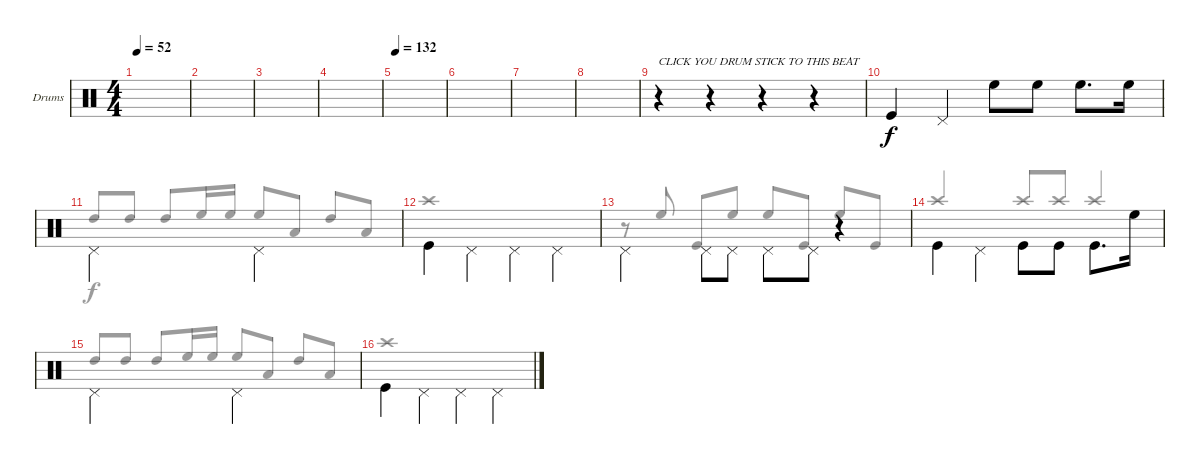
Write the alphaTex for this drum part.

\defaultSystemsLayout 4
\bracketExtendMode groupsimilarinstruments
\firstSystemTrackNameOrientation horizontal
\otherSystemsTrackNameOrientation horizontal
\track ("PETER CRISS" "Drums") {solo instrument percussion}
\staff {score}
\articulation defaults
\voice
\ts (4 4)
\tempo 52
\clef neutral
\scale
0.472222
\ks aminor
|
\scale
0.263889 |
\scale
0.263889 |
\scale
0.333333 |
\tempo 132
\scale
0.333333 |
\scale
0.333333 |
\scale
0.333333 |
\scale
0.333333 |
\scale
0.333333 r.4{txt "CLICK YOU DRUM STICK TO THIS BEAT"} r.4 r.4 r.4 |
"Kick (hit)".4 "Pedal Hi-Hat (hit)".4 "High Floor Tom (hit)".8 "High Floor Tom (hit)".8 "High Floor Tom (hit)".8{d} "High Floor Tom (hit)".16 |
"Pedal Hi-Hat (hit)".2{beam invert} "Pedal Hi-Hat (hit)".2{beam invert} |
"Kick (hit)".4{beam invert} "Pedal Hi-Hat (hit)".4{beam invert} "Pedal Hi-Hat (hit)".4{beam invert} "Pedal Hi-Hat (hit)".4{beam invert} |
"Pedal Hi-Hat (hit)".4{beam invert} "Pedal Hi-Hat (hit)".8{beam invert} "Pedal Hi-Hat (hit)".8 "Pedal Hi-Hat (hit)".8{beam invert} "Pedal Hi-Hat (hit)".8 r.4 |
"Kick (hit)".4{beam invert} "Pedal Hi-Hat (hit)".4{beam invert} "Kick (hit)".8{beam invert} "Kick (hit)".8 "Kick (hit)".8{d beam invert} "High Floor Tom (hit)".16 |
"Pedal Hi-Hat (hit)".2{beam invert} "Pedal Hi-Hat (hit)".2{beam invert} |
"Kick (hit)".4{beam invert} "Pedal Hi-Hat (hit)".4{beam invert} "Pedal Hi-Hat (hit)".4{beam invert} "Pedal Hi-Hat (hit)".4{beam invert}
\voice
\clef neutral
\ottava regular
\simile none
\scale
0.472222
\ks aminor
|
\scale
0.263889 |
\scale
0.263889 |
\scale
0.333333 |
\scale
0.333333 |
\scale
0.333333 |
\scale
0.333333 |
\scale
0.333333 |
\scale
0.333333 |
|
"High Tom (hit)".8{beam invert} "High Tom (hit)".8 "High Tom (hit)".8{beam invert} "High Floor Tom (hit)".16 "High Floor Tom (hit)".16 "High Floor Tom (hit)".8{beam invert} "Low Tom (hit)".8 "High Tom (hit)".8{beam invert} "Low Tom (hit)".8 |
"Crash high (hit)".1{beam invert} |
r.8 "High Floor Tom (hit)".8{beam invert} "Kick (hit)".8{beam invert} "High Floor Tom (hit)".8 "High Floor Tom (hit)".8{beam invert} "Kick (hit)".8 "High Floor Tom (hit)".8{beam invert} "Kick (hit)".8 |
"Crash high (hit)".2{beam invert} "Crash high (hit)".8{beam invert} "Crash high (hit)".8 "Crash high (hit)".4{beam invert} |
"High Tom (hit)".8{beam invert} "High Tom (hit)".8 "High Tom (hit)".8{beam invert} "High Floor Tom (hit)".16 "High Floor Tom (hit)".16 "High Floor Tom (hit)".8{beam invert} "Low Tom (hit)".8 "High Tom (hit)".8{beam invert} "Low Tom (hit)".8 |
"Crash high (hit)".1
